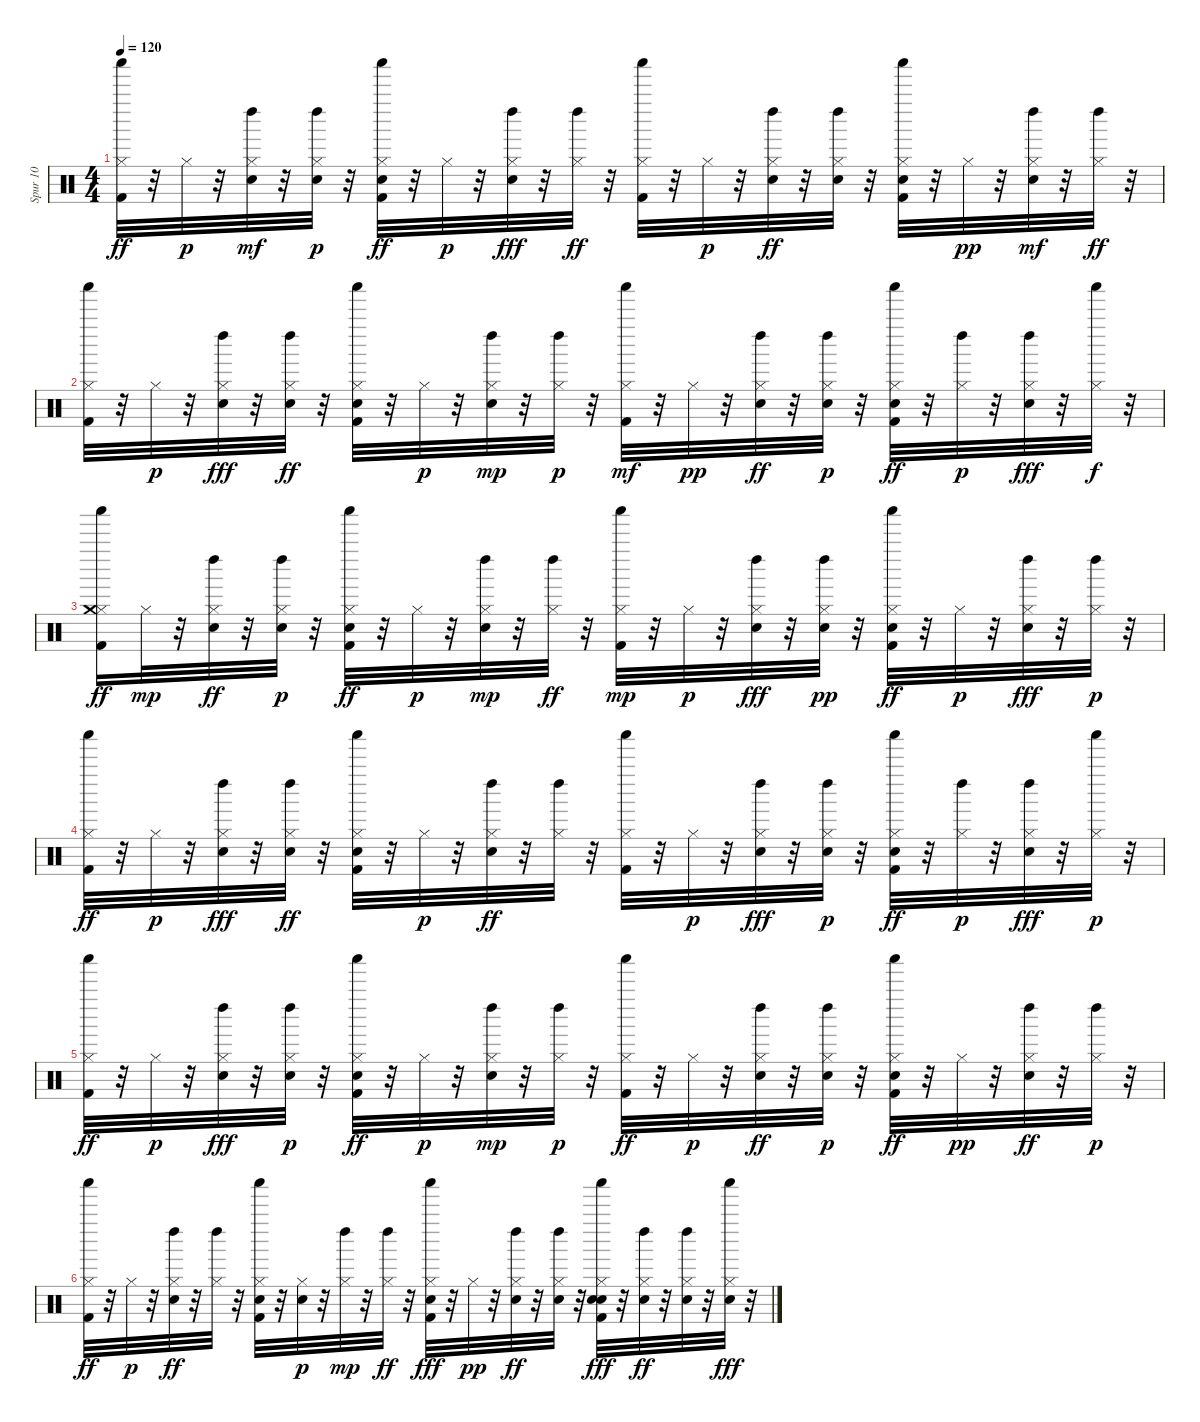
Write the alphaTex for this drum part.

\track ("Spur 10" "Spur 10") {instrument percussion}
\staff {score}
\articulation defaults
\ts (4 4)
\tempo 120
\clef neutral
\ks c
("Hi-Hat (closed)" "Shaker (hit)" "Kick (hit) 2").32{dy ff} r.32 "Hi-Hat (closed)".32{dy p} r.32 ("Electric Snare (hit)" "Hi-Hat (closed)" "Left Maraca (hit)").32{dy mf} r.32 ("Left Maraca (hit)" "Electric Snare (hit)" "Hi-Hat (closed)").32{dy p} r.32 ("Kick (hit) 2" "Snare (hit) 2" "Hi-Hat (closed)" "Shaker (hit)").32{dy ff} r.32 "Hi-Hat (closed)".32{dy p} r.32 ("Left Maraca (hit)" "Hi-Hat (closed)" "Electric Snare (hit)").32{dy fff} r.32 ("Hi-Hat (closed)" "Left Maraca (hit)").32{dy ff} r.32 ("Shaker (hit)" "Kick (hit) 2" "Hi-Hat (closed)").32 r.32 "Hi-Hat (closed)".32{dy p} r.32 ("Electric Snare (hit)" "Left Maraca (hit)" "Hi-Hat (closed)").32{dy ff} r.32 ("Hi-Hat (closed)" "Electric Snare (hit)" "Left Maraca (hit)").32 r.32 ("Snare (hit) 2" "Hi-Hat (closed)" "Shaker (hit)" "Kick (hit) 2").32 r.32 "Hi-Hat (closed)".32{dy pp} r.32 ("Electric Snare (hit)" "Hi-Hat (closed)" "Left Maraca (hit)").32{dy mf} r.32 ("Hi-Hat (closed)" "Left Maraca (hit)").32{dy ff} r.32 |
("Kick (hit) 2" "Shaker (hit)" "Hi-Hat (closed)").32 r.32 "Hi-Hat (closed)".32{dy p} r.32 ("Hi-Hat (closed)" "Left Maraca (hit)" "Electric Snare (hit)").32{dy fff} r.32 ("Left Maraca (hit)" "Hi-Hat (closed)" "Electric Snare (hit)").32{dy ff} r.32 ("Shaker (hit)" "Hi-Hat (closed)" "Kick (hit) 2" "Snare (hit) 2").32 r.32 "Hi-Hat (closed)".32{dy p} r.32 ("Electric Snare (hit)" "Hi-Hat (closed)" "Left Maraca (hit)").32{dy mp} r.32 ("Left Maraca (hit)" "Hi-Hat (closed)").32{dy p} r.32 ("Shaker (hit)" "Kick (hit) 2" "Hi-Hat (closed)").32{dy mf} r.32 "Hi-Hat (closed)".32{dy pp} r.32 ("Electric Snare (hit)" "Hi-Hat (closed)" "Left Maraca (hit)").32{dy ff} r.32 ("Left Maraca (hit)" "Electric Snare (hit)" "Hi-Hat (closed)").32{dy p} r.32 ("Shaker (hit)" "Snare (hit) 2" "Hi-Hat (closed)" "Kick (hit) 2").32{dy ff} r.32 ("Hi-Hat (closed)" "Left Maraca (hit)").32{dy p} r.32 ("Hi-Hat (closed)" "Left Maraca (hit)" "Electric Snare (hit)").32{dy fff} r.32 ("Shaker (hit)" "Hi-Hat (closed)").32{dy f} r.32 |
("Kick (hit) 2" "Hi-Hat (closed)" "Shaker (hit)" "Crash medium (hit)").16{dy ff} "Hi-Hat (closed)".32{dy mp} r.32 ("Left Maraca (hit)" "Electric Snare (hit)" "Hi-Hat (closed)").32{dy ff} r.32 ("Left Maraca (hit)" "Hi-Hat (closed)" "Electric Snare (hit)").32{dy p} r.32 ("Kick (hit) 2" "Shaker (hit)" "Hi-Hat (closed)" "Snare (hit) 2").32{dy ff} r.32 "Hi-Hat (closed)".32{dy p} r.32 ("Electric Snare (hit)" "Hi-Hat (closed)" "Left Maraca (hit)").32{dy mp} r.32 ("Hi-Hat (closed)" "Left Maraca (hit)").32{dy ff} r.32 ("Shaker (hit)" "Kick (hit) 2" "Hi-Hat (closed)").32{dy mp} r.32 "Hi-Hat (closed)".32{dy p} r.32 ("Left Maraca (hit)" "Hi-Hat (closed)" "Electric Snare (hit)").32{dy fff} r.32 ("Electric Snare (hit)" "Hi-Hat (closed)" "Left Maraca (hit)").32{dy pp} r.32 ("Shaker (hit)" "Snare (hit) 2" "Hi-Hat (closed)" "Kick (hit) 2").32{dy ff} r.32 "Hi-Hat (closed)".32{dy p} r.32 ("Hi-Hat (closed)" "Left Maraca (hit)" "Electric Snare (hit)").32{dy fff} r.32 ("Left Maraca (hit)" "Hi-Hat (closed)").32{dy p} r.32 |
("Shaker (hit)" "Hi-Hat (closed)" "Kick (hit) 2").32{dy ff} r.32 "Hi-Hat (closed)".32{dy p} r.32 ("Hi-Hat (closed)" "Electric Snare (hit)" "Left Maraca (hit)").32{dy fff} r.32 ("Electric Snare (hit)" "Hi-Hat (closed)" "Left Maraca (hit)").32{dy ff} r.32 ("Snare (hit) 2" "Hi-Hat (closed)" "Kick (hit) 2" "Shaker (hit)").32 r.32 "Hi-Hat (closed)".32{dy p} r.32 ("Left Maraca (hit)" "Electric Snare (hit)" "Hi-Hat (closed)").32{dy ff} r.32 ("Hi-Hat (closed)" "Left Maraca (hit)").32 r.32 ("Hi-Hat (closed)" "Kick (hit) 2" "Shaker (hit)").32 r.32 "Hi-Hat (closed)".32{dy p} r.32 ("Hi-Hat (closed)" "Electric Snare (hit)" "Left Maraca (hit)").32{dy fff} r.32 ("Electric Snare (hit)" "Left Maraca (hit)" "Hi-Hat (closed)").32{dy p} r.32 ("Kick (hit) 2" "Shaker (hit)" "Hi-Hat (closed)" "Snare (hit) 2").32{dy ff} r.32 ("Hi-Hat (closed)" "Left Maraca (hit)").32{dy p} r.32 ("Left Maraca (hit)" "Hi-Hat (closed)" "Electric Snare (hit)").32{dy fff} r.32 ("Shaker (hit)" "Hi-Hat (closed)").32{dy p} r.32 |
("Shaker (hit)" "Hi-Hat (closed)" "Kick (hit) 2").32{dy ff} r.32 "Hi-Hat (closed)".32{dy p} r.32 ("Left Maraca (hit)" "Hi-Hat (closed)" "Electric Snare (hit)").32{dy fff} r.32 ("Electric Snare (hit)" "Left Maraca (hit)" "Hi-Hat (closed)").32{dy p} r.32 ("Snare (hit) 2" "Kick (hit) 2" "Hi-Hat (closed)" "Shaker (hit)").32{dy ff} r.32 "Hi-Hat (closed)".32{dy p} r.32 ("Hi-Hat (closed)" "Electric Snare (hit)" "Left Maraca (hit)").32{dy mp} r.32 ("Left Maraca (hit)" "Hi-Hat (closed)").32{dy p} r.32 ("Shaker (hit)" "Kick (hit) 2" "Hi-Hat (closed)").32{dy ff} r.32 "Hi-Hat (closed)".32{dy p} r.32 ("Electric Snare (hit)" "Left Maraca (hit)" "Hi-Hat (closed)").32{dy ff} r.32 ("Electric Snare (hit)" "Left Maraca (hit)" "Hi-Hat (closed)").32{dy p} r.32 ("Kick (hit) 2" "Snare (hit) 2" "Shaker (hit)" "Hi-Hat (closed)").32{dy ff} r.32 "Hi-Hat (closed)".32{dy pp} r.32 ("Electric Snare (hit)" "Left Maraca (hit)" "Hi-Hat (closed)").32{dy ff} r.32 ("Left Maraca (hit)" "Hi-Hat (closed)").32{dy p} r.32 |
("Hi-Hat (closed)" "Kick (hit) 2" "Shaker (hit)").32{dy ff} r.32 "Hi-Hat (closed)".32{dy p} r.32 ("Electric Snare (hit)" "Hi-Hat (closed)" "Left Maraca (hit)").32{dy ff} r.32 ("Hi-Hat (closed)" "Left Maraca (hit)").32 r.32 ("Hi-Hat (closed)" "Snare (hit) 2" "Kick (hit) 2" "Shaker (hit)").32 r.32 ("Electric Snare (hit)" "Hi-Hat (closed)").32{dy p} r.32 ("Hi-Hat (closed)" "Left Maraca (hit)").32{dy mp} r.32 ("Hi-Hat (closed)" "Left Maraca (hit)").32{dy ff} r.32 ("Kick (hit) 2" "Shaker (hit)" "Hi-Hat (closed)" "Electric Snare (hit)").32{dy fff} r.32 "Hi-Hat (closed)".32{dy pp} r.32 ("Electric Snare (hit)" "Hi-Hat (closed)" "Left Maraca (hit)").32{dy ff} r.32 ("Hi-Hat (closed)" "Electric Snare (hit)" "Left Maraca (hit)").32 r.32 ("Snare (hit) 2" "Shaker (hit)" "Hi-Hat (closed)" "Kick (hit) 2" "Electric Snare (hit)").32{dy fff} r.32 ("Hi-Hat (closed)" "Left Maraca (hit)" "Electric Snare (hit)").32{dy ff} r.32 ("Electric Snare (hit)" "Hi-Hat (closed)" "Left Maraca (hit)").32 r.32 ("Electric Snare (hit)" "Hi-Hat (closed)" "Shaker (hit)").32{dy fff} r.32
